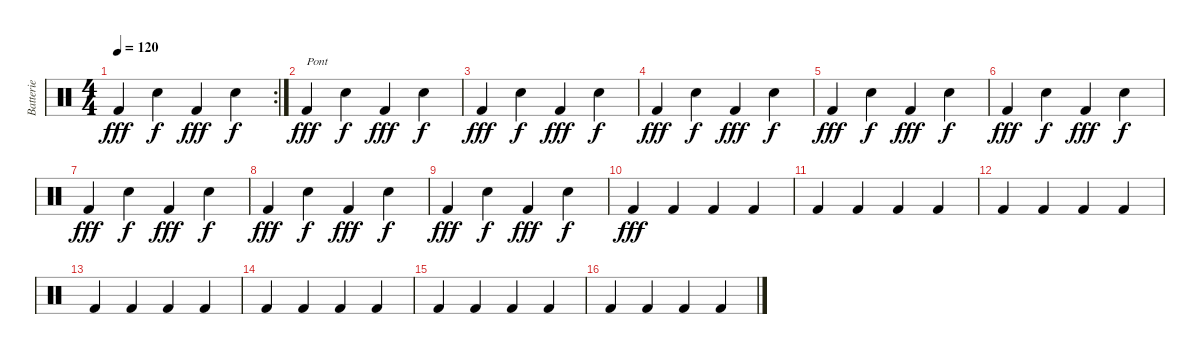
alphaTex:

\track ("Batterie" "Batterie") {instrument percussion}
\staff {score}
\articulation defaults
\rc 2
\ts (4 4)
\tempo 120
\clef neutral
\ks c "Kick (hit) 2".4{dy fff} "Electric Snare (hit)".4{dy f} "Kick (hit) 2".4{dy fff} "Electric Snare (hit)".4{dy f}
|
"Kick (hit) 2".4{txt "Pont" dy fff} "Electric Snare (hit)".4{dy f} "Kick (hit) 2".4{dy fff} "Electric Snare (hit)".4{dy f} |
"Kick (hit) 2".4{dy fff} "Electric Snare (hit)".4{dy f} "Kick (hit) 2".4{dy fff} "Electric Snare (hit)".4{dy f} |
"Kick (hit) 2".4{dy fff} "Electric Snare (hit)".4{dy f} "Kick (hit) 2".4{dy fff} "Electric Snare (hit)".4{dy f} |
"Kick (hit) 2".4{dy fff} "Electric Snare (hit)".4{dy f} "Kick (hit) 2".4{dy fff} "Electric Snare (hit)".4{dy f} |
"Kick (hit) 2".4{dy fff} "Electric Snare (hit)".4{dy f} "Kick (hit) 2".4{dy fff} "Electric Snare (hit)".4{dy f} |
"Kick (hit) 2".4{dy fff} "Electric Snare (hit)".4{dy f} "Kick (hit) 2".4{dy fff} "Electric Snare (hit)".4{dy f} |
"Kick (hit) 2".4{dy fff} "Electric Snare (hit)".4{dy f} "Kick (hit) 2".4{dy fff} "Electric Snare (hit)".4{dy f} |
"Kick (hit) 2".4{dy fff} "Electric Snare (hit)".4{dy f} "Kick (hit) 2".4{dy fff} "Electric Snare (hit)".4{dy f} |
"Kick (hit) 2".4{dy fff} "Kick (hit) 2".4 "Kick (hit) 2".4 "Kick (hit) 2".4 |
"Kick (hit) 2".4 "Kick (hit) 2".4 "Kick (hit) 2".4 "Kick (hit) 2".4 |
"Kick (hit) 2".4 "Kick (hit) 2".4 "Kick (hit) 2".4 "Kick (hit) 2".4 |
"Kick (hit) 2".4 "Kick (hit) 2".4 "Kick (hit) 2".4 "Kick (hit) 2".4 |
"Kick (hit) 2".4 "Kick (hit) 2".4 "Kick (hit) 2".4 "Kick (hit) 2".4 |
"Kick (hit) 2".4 "Kick (hit) 2".4 "Kick (hit) 2".4 "Kick (hit) 2".4 |
"Kick (hit) 2".4 "Kick (hit) 2".4 "Kick (hit) 2".4 "Kick (hit) 2".4
